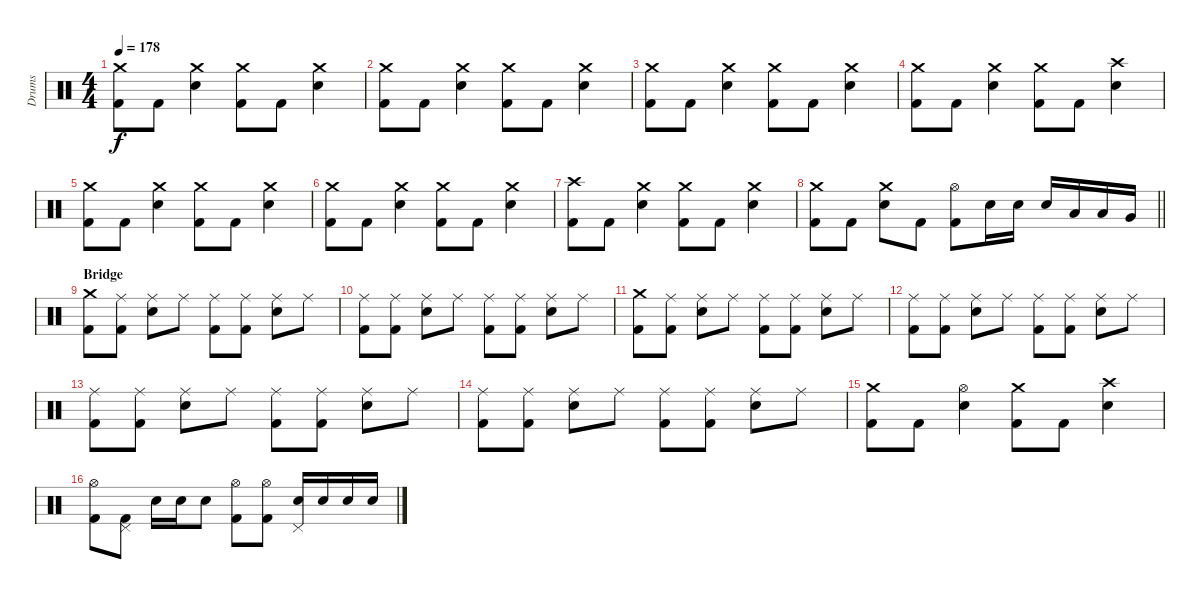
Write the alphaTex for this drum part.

\track ("Drums" "Drums") {instrument percussion}
\staff {score}
\articulation defaults
\ts (4 4)
\tempo 178
\clef neutral
\ks c
("Crash medium (hit)" "Kick (hit) 2").8{dy f} "Kick (hit) 2".8 ("Crash medium (hit)" "Electric Snare (hit)").4 ("Crash medium (hit)" "Kick (hit) 2").8 "Kick (hit) 2".8 ("Crash medium (hit)" "Electric Snare (hit)").4 |
("Crash medium (hit)" "Kick (hit) 2").8 "Kick (hit) 2".8 ("Crash medium (hit)" "Electric Snare (hit)").4 ("Crash medium (hit)" "Kick (hit) 2").8 "Kick (hit) 2".8 ("Crash medium (hit)" "Electric Snare (hit)").4 |
("Crash medium (hit)" "Kick (hit) 2").8 "Kick (hit) 2".8 ("Crash medium (hit)" "Electric Snare (hit)").4 ("Crash medium (hit)" "Kick (hit) 2").8 "Kick (hit) 2".8 ("Crash medium (hit)" "Electric Snare (hit)").4 |
("Crash medium (hit)" "Kick (hit) 2").8 "Kick (hit) 2".8 ("Crash medium (hit)" "Electric Snare (hit)").4 ("Crash medium (hit)" "Kick (hit) 2").8 "Kick (hit) 2".8 ("Crash high (hit)" "Electric Snare (hit)").4 |
("Crash medium (hit)" "Kick (hit) 2").8 "Kick (hit) 2".8 ("Crash medium (hit)" "Electric Snare (hit)").4 ("Crash medium (hit)" "Kick (hit) 2").8 "Kick (hit) 2".8 ("Crash medium (hit)" "Electric Snare (hit)").4 |
("Crash medium (hit)" "Kick (hit) 2").8 "Kick (hit) 2".8 ("Crash medium (hit)" "Electric Snare (hit)").4 ("Crash medium (hit)" "Kick (hit) 2").8 "Kick (hit) 2".8 ("Crash medium (hit)" "Electric Snare (hit)").4 |
("Crash high (hit)" "Kick (hit) 2").8 "Kick (hit) 2".8 ("Crash medium (hit)" "Electric Snare (hit)").4 ("Crash medium (hit)" "Kick (hit) 2").8 "Kick (hit) 2".8 ("Crash medium (hit)" "Electric Snare (hit)").4 |
\barLineRight lightlight
("Crash medium (hit)" "Kick (hit) 2").8 "Kick (hit) 2".8 ("Crash medium (hit)" "Electric Snare (hit)").8 "Kick (hit) 2".8 ("Hi-Hat (open)" "Kick (hit) 2").8 "Electric Snare (hit)".16 "Electric Snare (hit)".16 "Electric Snare (hit)".16 "Low Tom (hit)".16 "Low Tom (hit)".16 "Very Low Tom (hit)".16 |
\section ("" "Bridge")
("Crash medium (hit)" "Kick (hit) 2").8 ("Ride (middle)" "Kick (hit) 2").8 ("Ride (middle)" "Electric Snare (hit)").8 "Ride (middle)".8 ("Ride (middle)" "Kick (hit) 2").8 ("Ride (middle)" "Kick (hit) 2").8 ("Ride (middle)" "Electric Snare (hit)").8 "Ride (middle)".8 |
("Ride (middle)" "Kick (hit) 2").8 ("Ride (middle)" "Kick (hit) 2").8 ("Ride (middle)" "Electric Snare (hit)").8 "Ride (middle)".8 ("Ride (middle)" "Kick (hit) 2").8 ("Ride (middle)" "Kick (hit) 2").8 ("Ride (middle)" "Electric Snare (hit)").8 "Ride (middle)".8 |
("Crash medium (hit)" "Kick (hit) 2").8 ("Ride (middle)" "Kick (hit) 2").8 ("Ride (middle)" "Electric Snare (hit)").8 "Ride (middle)".8 ("Ride (middle)" "Kick (hit) 2").8 ("Ride (middle)" "Kick (hit) 2").8 ("Ride (middle)" "Electric Snare (hit)").8 "Ride (middle)".8 |
("Ride (middle)" "Kick (hit) 2").8 ("Ride (middle)" "Kick (hit) 2").8 ("Ride (middle)" "Electric Snare (hit)").8 "Ride (middle)".8 ("Ride (middle)" "Kick (hit) 2").8 ("Ride (middle)" "Kick (hit) 2").8 ("Ride (middle)" "Electric Snare (hit)").8 "Ride (middle)".8 |
("Ride (middle)" "Kick (hit) 2").8 ("Ride (middle)" "Kick (hit) 2").8 ("Ride (middle)" "Electric Snare (hit)").8 "Ride (middle)".8 ("Ride (middle)" "Kick (hit) 2").8 ("Ride (middle)" "Kick (hit) 2").8 ("Ride (middle)" "Electric Snare (hit)").8 "Ride (middle)".8 |
("Ride (middle)" "Kick (hit) 2").8 ("Ride (middle)" "Kick (hit) 2").8 ("Ride (middle)" "Electric Snare (hit)").8 "Ride (middle)".8 ("Ride (middle)" "Kick (hit) 2").8 ("Ride (middle)" "Kick (hit) 2").8 ("Ride (middle)" "Electric Snare (hit)").8 "Ride (middle)".8 |
("Crash medium (hit)" "Kick (hit) 2").8 "Kick (hit) 2".8 ("Hi-Hat (open)" "Electric Snare (hit)").4 ("Crash medium (hit)" "Kick (hit) 2").8 "Kick (hit) 2".8 ("Crash high (hit)" "Electric Snare (hit)").4 |
("Hi-Hat (open)" "Kick (hit) 2").8 ("Pedal Hi-Hat (hit)" "Kick (hit) 2").8 "Electric Snare (hit)".16 "Electric Snare (hit)".16 "Electric Snare (hit)".8 ("Hi-Hat (open)" "Kick (hit) 2").8 ("Hi-Hat (open)" "Kick (hit) 2").8 ("Pedal Hi-Hat (hit)" "Electric Snare (hit)").16 "Electric Snare (hit)".16 "Electric Snare (hit)".16 "Electric Snare (hit)".16
